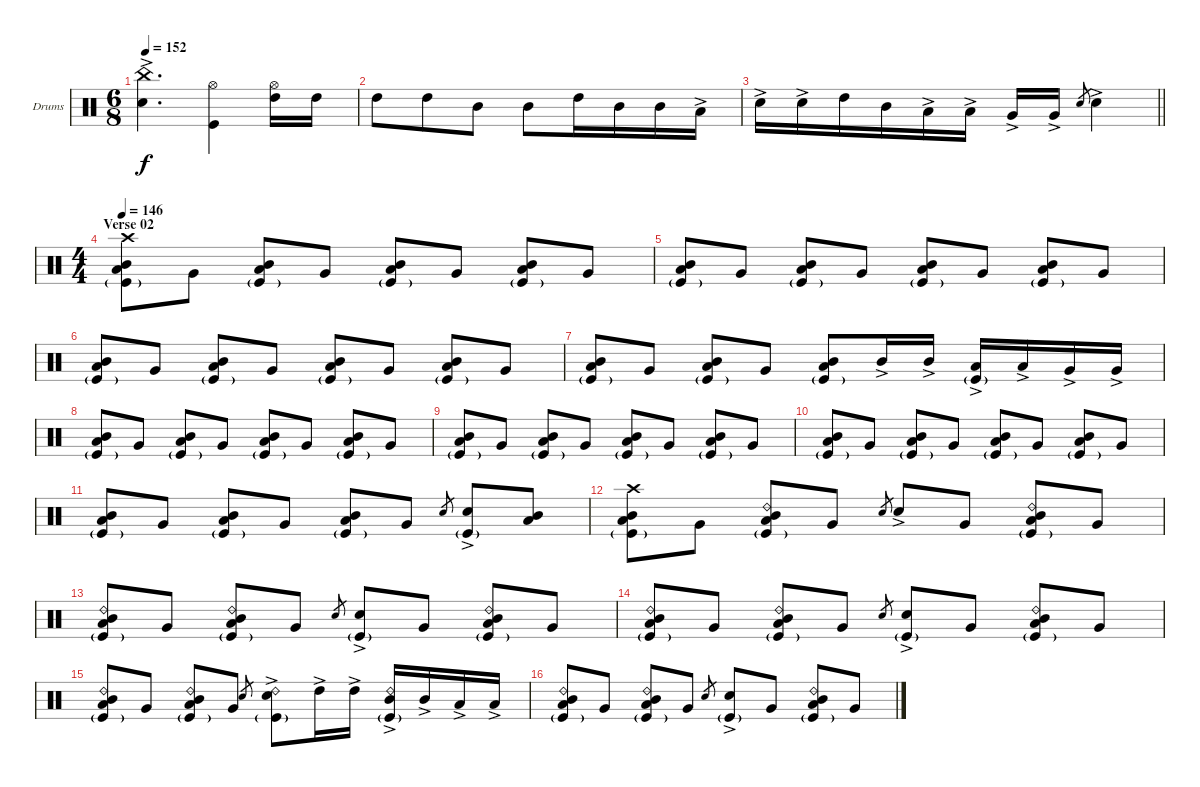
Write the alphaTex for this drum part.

\bracketExtendMode groupsimilarinstruments
\firstSystemTrackNameOrientation horizontal
\otherSystemsTrackNameOrientation horizontal
\track ("Drumkit" "Drums") {instrument percussion}
\staff {score}
\articulation defaults
\ts (6 8)
\tempo 152
\clef neutral
\ks c
("China (hit)"{ac} "Snare (hit) 2").4{d dy f} ("Hi-Hat (open)" "Kick (hit)").4 ("Hi-Hat (open)" "High Tom (hit)").16 "High Tom (hit)".16 |
"High Tom (hit)".8 "High Tom (hit)".8 "Mid Tom (hit)".8 "Mid Tom (hit)".8 "High Tom (hit)".16 "Mid Tom (hit)".16 "Mid Tom (hit)".16 "Low Tom (hit)"{ac}.16 |
\barLineRight lightlight "Snare (hit) 2"{ac}.16 "Snare (hit) 2"{ac}.16 "High Tom (hit)".16 "Mid Tom (hit)".16 "Low Tom (hit)"{ac}.16 "Low Tom (hit)"{ac}.16 "Very Low Tom (hit)"{ac}.16 "Very Low Tom (hit)"{ac}.16 "Snare (hit) 2".8{gr} "Snare (hit) 2"{ac}.4
|
\ts (4 4)
\beaming (8 2 2 2 2)
\section ("" "Verse 02")
\tempo 146
("Crash high (hit)" "Low Tom (hit)" "Mid Tom (hit)" "Kick (hit)"{g}).8 "Very Low Tom (hit)".8 ("Low Tom (hit)" "Mid Tom (hit)" "Kick (hit)"{g}).8 "Very Low Tom (hit)".8 ("Low Tom (hit)" "Mid Tom (hit)" "Kick (hit)"{g}).8 "Very Low Tom (hit)".8 ("Low Tom (hit)" "Mid Tom (hit)" "Kick (hit)"{g}).8 "Very Low Tom (hit)".8 |
("Low Tom (hit)" "Mid Tom (hit)" "Kick (hit)"{g}).8 "Very Low Tom (hit)".8 ("Low Tom (hit)" "Mid Tom (hit)" "Kick (hit)"{g}).8 "Very Low Tom (hit)".8 ("Low Tom (hit)" "Mid Tom (hit)" "Kick (hit)"{g}).8 "Very Low Tom (hit)".8 ("Low Tom (hit)" "Mid Tom (hit)" "Kick (hit)"{g}).8 "Very Low Tom (hit)".8 |
("Low Tom (hit)" "Mid Tom (hit)" "Kick (hit)"{g}).8 "Very Low Tom (hit)".8 ("Low Tom (hit)" "Mid Tom (hit)" "Kick (hit)"{g}).8 "Very Low Tom (hit)".8 ("Low Tom (hit)" "Mid Tom (hit)" "Kick (hit)"{g}).8 "Very Low Tom (hit)".8 ("Low Tom (hit)" "Mid Tom (hit)" "Kick (hit)"{g}).8 "Very Low Tom (hit)".8 |
("Low Tom (hit)" "Mid Tom (hit)" "Kick (hit)"{g}).8 "Very Low Tom (hit)".8 ("Low Tom (hit)" "Mid Tom (hit)" "Kick (hit)"{g}).8 "Very Low Tom (hit)".8 ("Low Tom (hit)" "Mid Tom (hit)" "Kick (hit)"{g}).8 "Mid Tom (hit)"{ac}.16 "Mid Tom (hit)"{ac}.16 ("Low Tom (hit)"{ac} "Kick (hit)"{g}).16 "Low Tom (hit)"{ac}.16 "Very Low Tom (hit)"{ac}.16 "Very Low Tom (hit)"{ac}.16 |
("Low Tom (hit)" "Mid Tom (hit)" "Kick (hit)"{g}).8 "Very Low Tom (hit)".8 ("Low Tom (hit)" "Mid Tom (hit)" "Kick (hit)"{g}).8 "Very Low Tom (hit)".8 ("Low Tom (hit)" "Mid Tom (hit)" "Kick (hit)"{g}).8 "Very Low Tom (hit)".8 ("Low Tom (hit)" "Mid Tom (hit)" "Kick (hit)"{g}).8 "Very Low Tom (hit)".8 |
("Low Tom (hit)" "Mid Tom (hit)" "Kick (hit)"{g}).8 "Very Low Tom (hit)".8 ("Low Tom (hit)" "Mid Tom (hit)" "Kick (hit)"{g}).8 "Very Low Tom (hit)".8 ("Low Tom (hit)" "Mid Tom (hit)" "Kick (hit)"{g}).8 "Very Low Tom (hit)".8 ("Low Tom (hit)" "Mid Tom (hit)" "Kick (hit)"{g}).8 "Very Low Tom (hit)".8 |
("Low Tom (hit)" "Mid Tom (hit)" "Kick (hit)"{g}).8 "Very Low Tom (hit)".8 ("Low Tom (hit)" "Mid Tom (hit)" "Kick (hit)"{g}).8 "Very Low Tom (hit)".8 ("Low Tom (hit)" "Mid Tom (hit)" "Kick (hit)"{g}).8 "Very Low Tom (hit)".8 ("Low Tom (hit)" "Mid Tom (hit)" "Kick (hit)"{g}).8 "Very Low Tom (hit)".8 |
("Low Tom (hit)" "Mid Tom (hit)" "Kick (hit)"{g}).8 "Very Low Tom (hit)".8 ("Low Tom (hit)" "Mid Tom (hit)" "Kick (hit)"{g}).8 "Very Low Tom (hit)".8 ("Low Tom (hit)" "Mid Tom (hit)" "Kick (hit)"{g}).8 "Very Low Tom (hit)".8 "Snare (hit) 2".8{gr} ("Snare (hit) 2"{ac} "Kick (hit)"{g}).8 ("Low Tom (hit)" "Mid Tom (hit)").8 |
("Crash high (hit)" "Low Tom (hit)" "Mid Tom (hit)" "Kick (hit)"{g}).8 "Very Low Tom (hit)".8 ("Low Tom (hit)" "Mid Tom (hit)" "Ride (bell) 2" "Kick (hit)"{g}).8 "Very Low Tom (hit)".8 "Snare (hit) 2".8{gr} "Snare (hit) 2"{ac}.8 "Very Low Tom (hit)".8 ("Low Tom (hit)" "Mid Tom (hit)" "Ride (bell) 2" "Kick (hit)"{g}).8 "Very Low Tom (hit)".8 |
("Low Tom (hit)" "Mid Tom (hit)" "Ride (bell) 2" "Kick (hit)"{g}).8 "Very Low Tom (hit)".8 ("Low Tom (hit)" "Mid Tom (hit)" "Ride (bell) 2" "Kick (hit)"{g}).8 "Very Low Tom (hit)".8 "Snare (hit) 2".8{gr} ("Snare (hit) 2"{ac} "Kick (hit)"{g}).8 "Very Low Tom (hit)".8 ("Low Tom (hit)" "Mid Tom (hit)" "Ride (bell) 2" "Kick (hit)"{g}).8 "Very Low Tom (hit)".8 |
("Low Tom (hit)" "Mid Tom (hit)" "Ride (bell) 2" "Kick (hit)"{g}).8 "Very Low Tom (hit)".8 ("Low Tom (hit)" "Mid Tom (hit)" "Ride (bell) 2" "Kick (hit)"{g}).8 "Very Low Tom (hit)".8 "Snare (hit) 2".8{gr} ("Snare (hit) 2"{ac} "Kick (hit)"{g}).8 "Very Low Tom (hit)".8 ("Low Tom (hit)" "Mid Tom (hit)" "Ride (bell) 2" "Kick (hit)"{g}).8 "Very Low Tom (hit)".8 |
("Low Tom (hit)" "Mid Tom (hit)" "Ride (bell) 2" "Kick (hit)"{g}).8 "Very Low Tom (hit)".8 ("Low Tom (hit)" "Mid Tom (hit)" "Ride (bell) 2" "Kick (hit)"{g}).8 "Very Low Tom (hit)".8 "Snare (hit) 2".8{gr} ("Snare (hit) 2"{ac} "Kick (hit)"{g} "Ride (bell) 2").8 "High Tom (hit)"{ac}.16 "High Tom (hit)"{ac}.16 ("Mid Tom (hit)"{ac} "Kick (hit)"{g} "Ride (bell) 2").16 "Mid Tom (hit)"{ac}.16 "Low Tom (hit)"{ac}.16 "Low Tom (hit)"{ac}.16 |
\scale
0.371429 ("Low Tom (hit)" "Mid Tom (hit)" "Ride (bell) 2" "Kick (hit)"{g}).8 "Very Low Tom (hit)".8 ("Low Tom (hit)" "Mid Tom (hit)" "Ride (bell) 2" "Kick (hit)"{g}).8 "Very Low Tom (hit)".8 "Snare (hit) 2".8{gr} ("Snare (hit) 2"{ac} "Kick (hit)"{g}).8 "Very Low Tom (hit)".8 ("Low Tom (hit)" "Mid Tom (hit)" "Ride (bell) 2" "Kick (hit)"{g}).8 "Very Low Tom (hit)".8
